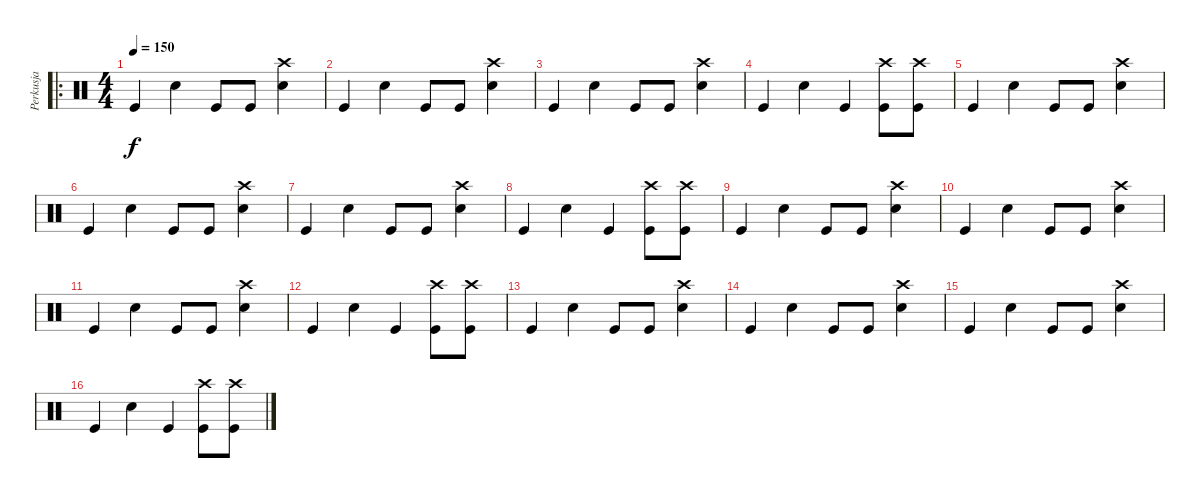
\track ("Perkusja" "Perkusja") {instrument percussion}
\staff {score}
\articulation defaults
\ro
\ts (4 4)
\tempo 150
\clef neutral
\ks c "Kick (hit)".4{dy f} "Electric Snare (hit)".4 "Kick (hit)".8 "Kick (hit)".8
("Crash high (hit)" "Electric Snare (hit)").4 |
"Kick (hit)".4 "Electric Snare (hit)".4 "Kick (hit)".8 "Kick (hit)".8 ("Crash high (hit)" "Electric Snare (hit)").4 |
"Kick (hit)".4 "Electric Snare (hit)".4 "Kick (hit)".8 "Kick (hit)".8 ("Crash high (hit)" "Electric Snare (hit)").4 |
"Kick (hit)".4 "Electric Snare (hit)".4 "Kick (hit)".4 ("Crash high (hit)" "Kick (hit)").8 ("Crash high (hit)" "Kick (hit)").8 |
"Kick (hit)".4 "Electric Snare (hit)".4 "Kick (hit)".8 "Kick (hit)".8 ("Crash high (hit)" "Electric Snare (hit)").4 |
"Kick (hit)".4 "Electric Snare (hit)".4 "Kick (hit)".8 "Kick (hit)".8 ("Crash high (hit)" "Electric Snare (hit)").4 |
"Kick (hit)".4 "Electric Snare (hit)".4 "Kick (hit)".8 "Kick (hit)".8 ("Crash high (hit)" "Electric Snare (hit)").4 |
"Kick (hit)".4 "Electric Snare (hit)".4 "Kick (hit)".4 ("Crash high (hit)" "Kick (hit)").8 ("Crash high (hit)" "Kick (hit)").8 |
"Kick (hit)".4 "Electric Snare (hit)".4 "Kick (hit)".8 "Kick (hit)".8 ("Crash high (hit)" "Electric Snare (hit)").4 |
"Kick (hit)".4 "Electric Snare (hit)".4 "Kick (hit)".8 "Kick (hit)".8 ("Crash high (hit)" "Electric Snare (hit)").4 |
"Kick (hit)".4 "Electric Snare (hit)".4 "Kick (hit)".8 "Kick (hit)".8 ("Crash high (hit)" "Electric Snare (hit)").4 |
"Kick (hit)".4 "Electric Snare (hit)".4 "Kick (hit)".4 ("Crash high (hit)" "Kick (hit)").8 ("Crash high (hit)" "Kick (hit)").8 |
"Kick (hit)".4 "Electric Snare (hit)".4 "Kick (hit)".8 "Kick (hit)".8 ("Crash high (hit)" "Electric Snare (hit)").4 |
"Kick (hit)".4 "Electric Snare (hit)".4 "Kick (hit)".8 "Kick (hit)".8 ("Crash high (hit)" "Electric Snare (hit)").4 |
"Kick (hit)".4 "Electric Snare (hit)".4 "Kick (hit)".8 "Kick (hit)".8 ("Crash high (hit)" "Electric Snare (hit)").4 |
"Kick (hit)".4 "Electric Snare (hit)".4 "Kick (hit)".4 ("Crash high (hit)" "Kick (hit)").8 ("Crash high (hit)" "Kick (hit)").8
